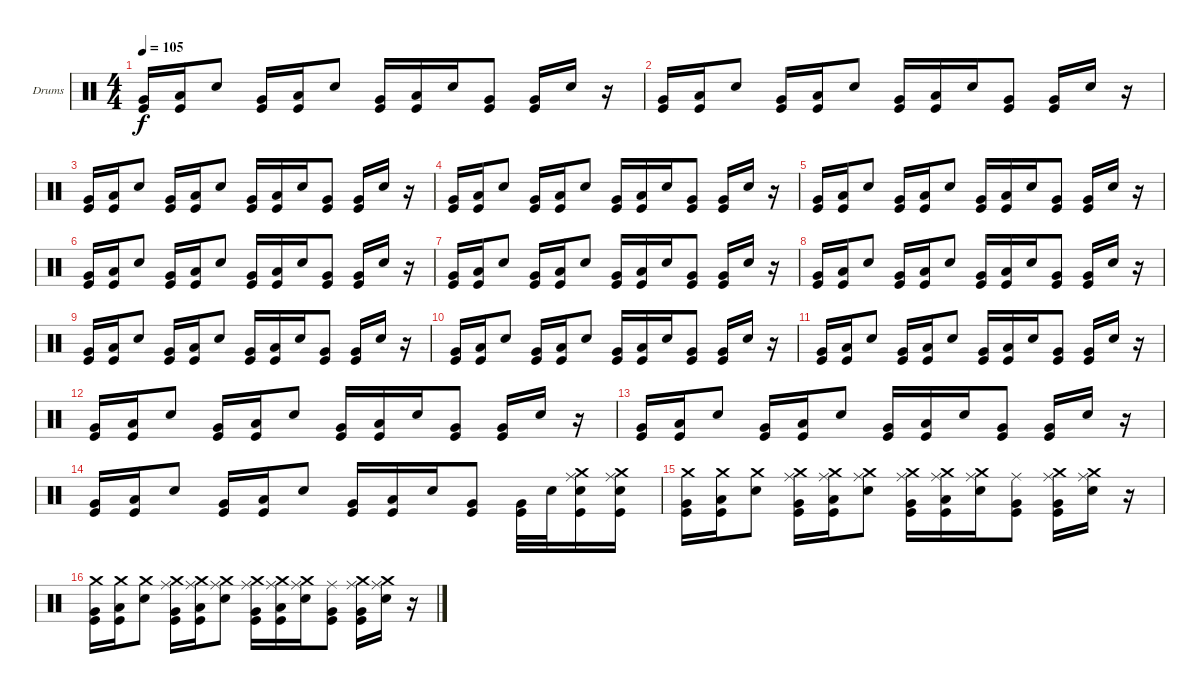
\defaultSystemsLayout 4
\bracketExtendMode groupsimilarinstruments
\firstSystemTrackNameOrientation horizontal
\otherSystemsTrackNameOrientation horizontal
\track ("Steve" "Drums") {instrument percussion}
\staff {score}
\articulation defaults
\ts (4 4)
\tempo 105
\clef neutral
\ks c
("Very Low Tom (hit)" "Kick (hit)").16{dy f} ("Low Tom (hit)" "Kick (hit)").16 "Snare (hit) 2".8 ("Very Low Tom (hit)" "Kick (hit)").16 ("Low Tom (hit)" "Kick (hit)").16 "Snare (hit) 2".8 ("Very Low Tom (hit)" "Kick (hit)").16 ("Low Tom (hit)" "Kick (hit)").16 "Snare (hit) 2".16 ("Very Low Tom (hit)" "Kick (hit)").8 ("Very Low Tom (hit)" "Kick (hit)").16 "Snare (hit) 2".16 r.16 |
("Very Low Tom (hit)" "Kick (hit)").16 ("Low Tom (hit)" "Kick (hit)").16 "Snare (hit) 2".8 ("Very Low Tom (hit)" "Kick (hit)").16 ("Low Tom (hit)" "Kick (hit)").16 "Snare (hit) 2".8 ("Very Low Tom (hit)" "Kick (hit)").16 ("Low Tom (hit)" "Kick (hit)").16 "Snare (hit) 2".16 ("Very Low Tom (hit)" "Kick (hit)").8 ("Very Low Tom (hit)" "Kick (hit)").16 "Snare (hit) 2".16 r.16 |
("Very Low Tom (hit)" "Kick (hit)").16 ("Low Tom (hit)" "Kick (hit)").16 "Snare (hit) 2".8 ("Very Low Tom (hit)" "Kick (hit)").16 ("Low Tom (hit)" "Kick (hit)").16 "Snare (hit) 2".8 ("Very Low Tom (hit)" "Kick (hit)").16 ("Low Tom (hit)" "Kick (hit)").16 "Snare (hit) 2".16 ("Very Low Tom (hit)" "Kick (hit)").8 ("Very Low Tom (hit)" "Kick (hit)").16 "Snare (hit) 2".16 r.16 |
("Very Low Tom (hit)" "Kick (hit)").16 ("Low Tom (hit)" "Kick (hit)").16 "Snare (hit) 2".8 ("Very Low Tom (hit)" "Kick (hit)").16 ("Low Tom (hit)" "Kick (hit)").16 "Snare (hit) 2".8 ("Very Low Tom (hit)" "Kick (hit)").16 ("Low Tom (hit)" "Kick (hit)").16 "Snare (hit) 2".16 ("Very Low Tom (hit)" "Kick (hit)").8 ("Very Low Tom (hit)" "Kick (hit)").16 "Snare (hit) 2".16 r.16 |
("Very Low Tom (hit)" "Kick (hit)").16 ("Low Tom (hit)" "Kick (hit)").16 "Snare (hit) 2".8 ("Very Low Tom (hit)" "Kick (hit)").16 ("Low Tom (hit)" "Kick (hit)").16 "Snare (hit) 2".8 ("Very Low Tom (hit)" "Kick (hit)").16 ("Low Tom (hit)" "Kick (hit)").16 "Snare (hit) 2".16 ("Very Low Tom (hit)" "Kick (hit)").8 ("Very Low Tom (hit)" "Kick (hit)").16 "Snare (hit) 2".16 r.16 |
("Very Low Tom (hit)" "Kick (hit)").16 ("Low Tom (hit)" "Kick (hit)").16 "Snare (hit) 2".8 ("Very Low Tom (hit)" "Kick (hit)").16 ("Low Tom (hit)" "Kick (hit)").16 "Snare (hit) 2".8 ("Very Low Tom (hit)" "Kick (hit)").16 ("Low Tom (hit)" "Kick (hit)").16 "Snare (hit) 2".16 ("Very Low Tom (hit)" "Kick (hit)").8 ("Very Low Tom (hit)" "Kick (hit)").16 "Snare (hit) 2".16 r.16 |
("Very Low Tom (hit)" "Kick (hit)").16 ("Low Tom (hit)" "Kick (hit)").16 "Snare (hit) 2".8 ("Very Low Tom (hit)" "Kick (hit)").16 ("Low Tom (hit)" "Kick (hit)").16 "Snare (hit) 2".8 ("Very Low Tom (hit)" "Kick (hit)").16 ("Low Tom (hit)" "Kick (hit)").16 "Snare (hit) 2".16 ("Very Low Tom (hit)" "Kick (hit)").8 ("Very Low Tom (hit)" "Kick (hit)").16 "Snare (hit) 2".16 r.16 |
("Very Low Tom (hit)" "Kick (hit)").16 ("Low Tom (hit)" "Kick (hit)").16 "Snare (hit) 2".8 ("Very Low Tom (hit)" "Kick (hit)").16 ("Low Tom (hit)" "Kick (hit)").16 "Snare (hit) 2".8 ("Very Low Tom (hit)" "Kick (hit)").16 ("Low Tom (hit)" "Kick (hit)").16 "Snare (hit) 2".16 ("Very Low Tom (hit)" "Kick (hit)").8 ("Very Low Tom (hit)" "Kick (hit)").16 "Snare (hit) 2".16 r.16 |
("Very Low Tom (hit)" "Kick (hit)").16 ("Low Tom (hit)" "Kick (hit)").16 "Snare (hit) 2".8 ("Very Low Tom (hit)" "Kick (hit)").16 ("Low Tom (hit)" "Kick (hit)").16 "Snare (hit) 2".8 ("Very Low Tom (hit)" "Kick (hit)").16 ("Low Tom (hit)" "Kick (hit)").16 "Snare (hit) 2".16 ("Very Low Tom (hit)" "Kick (hit)").8 ("Very Low Tom (hit)" "Kick (hit)").16 "Snare (hit) 2".16 r.16 |
("Very Low Tom (hit)" "Kick (hit)").16 ("Low Tom (hit)" "Kick (hit)").16 "Snare (hit) 2".8 ("Very Low Tom (hit)" "Kick (hit)").16 ("Low Tom (hit)" "Kick (hit)").16 "Snare (hit) 2".8 ("Very Low Tom (hit)" "Kick (hit)").16 ("Low Tom (hit)" "Kick (hit)").16 "Snare (hit) 2".16 ("Very Low Tom (hit)" "Kick (hit)").8 ("Very Low Tom (hit)" "Kick (hit)").16 "Snare (hit) 2".16 r.16 |
("Very Low Tom (hit)" "Kick (hit)").16 ("Low Tom (hit)" "Kick (hit)").16 "Snare (hit) 2".8 ("Very Low Tom (hit)" "Kick (hit)").16 ("Low Tom (hit)" "Kick (hit)").16 "Snare (hit) 2".8 ("Very Low Tom (hit)" "Kick (hit)").16 ("Low Tom (hit)" "Kick (hit)").16 "Snare (hit) 2".16 ("Very Low Tom (hit)" "Kick (hit)").8 ("Very Low Tom (hit)" "Kick (hit)").16 "Snare (hit) 2".16 r.16 |
("Very Low Tom (hit)" "Kick (hit)").16 ("Low Tom (hit)" "Kick (hit)").16 "Snare (hit) 2".8 ("Very Low Tom (hit)" "Kick (hit)").16 ("Low Tom (hit)" "Kick (hit)").16 "Snare (hit) 2".8 ("Very Low Tom (hit)" "Kick (hit)").16 ("Low Tom (hit)" "Kick (hit)").16 "Snare (hit) 2".16 ("Very Low Tom (hit)" "Kick (hit)").8 ("Very Low Tom (hit)" "Kick (hit)").16 "Snare (hit) 2".16 r.16 |
("Very Low Tom (hit)" "Kick (hit)").16 ("Low Tom (hit)" "Kick (hit)").16 "Snare (hit) 2".8 ("Very Low Tom (hit)" "Kick (hit)").16 ("Low Tom (hit)" "Kick (hit)").16 "Snare (hit) 2".8 ("Very Low Tom (hit)" "Kick (hit)").16 ("Low Tom (hit)" "Kick (hit)").16 "Snare (hit) 2".16 ("Very Low Tom (hit)" "Kick (hit)").8 ("Very Low Tom (hit)" "Kick (hit)").16 "Snare (hit) 2".16 r.16 |
("Very Low Tom (hit)" "Kick (hit)").16 ("Low Tom (hit)" "Kick (hit)").16 "Snare (hit) 2".8 ("Very Low Tom (hit)" "Kick (hit)").16 ("Low Tom (hit)" "Kick (hit)").16 "Snare (hit) 2".8 ("Very Low Tom (hit)" "Kick (hit)").16 ("Low Tom (hit)" "Kick (hit)").16 "Snare (hit) 2".16 ("Very Low Tom (hit)" "Kick (hit)").8 ("Very Low Tom (hit)" "Kick (hit)").32 "Snare (hit) 2".32 ("Snare (hit) 2" "Kick (hit)" "Crash medium (hit)" "Ride (middle)").16 ("Snare (hit) 2" "Kick (hit)" "Crash medium (hit)" "Ride (middle)").16 |
("Very Low Tom (hit)" "Crash medium (hit)" "Kick (hit)").16 ("Low Tom (hit)" "Crash medium (hit)" "Kick (hit)").16 ("Snare (hit) 2" "Crash medium (hit)").8 ("Very Low Tom (hit)" "Ride (middle)" "Kick (hit)" "Crash medium (hit)").16 ("Low Tom (hit)" "Ride (middle)" "Kick (hit)" "Crash medium (hit)").16 ("Snare (hit) 2" "Ride (middle)" "Crash medium (hit)").8 ("Very Low Tom (hit)" "Ride (middle)" "Kick (hit)" "Crash medium (hit)").16 ("Low Tom (hit)" "Ride (middle)" "Kick (hit)" "Crash medium (hit)").16 ("Snare (hit) 2" "Ride (middle)" "Crash medium (hit)").16 ("Very Low Tom (hit)" "Ride (middle)" "Kick (hit)").8 ("Very Low Tom (hit)" "Ride (middle)" "Kick (hit)" "Crash medium (hit)").16 ("Snare (hit) 2" "Ride (middle)" "Crash medium (hit)").16 r.16 |
("Very Low Tom (hit)" "Crash medium (hit)" "Kick (hit)").16 ("Low Tom (hit)" "Crash medium (hit)" "Kick (hit)").16 ("Snare (hit) 2" "Crash medium (hit)").8 ("Very Low Tom (hit)" "Ride (middle)" "Kick (hit)" "Crash medium (hit)").16 ("Low Tom (hit)" "Ride (middle)" "Kick (hit)" "Crash medium (hit)").16 ("Snare (hit) 2" "Ride (middle)" "Crash medium (hit)").8 ("Very Low Tom (hit)" "Ride (middle)" "Kick (hit)" "Crash medium (hit)").16 ("Low Tom (hit)" "Ride (middle)" "Kick (hit)" "Crash medium (hit)").16 ("Snare (hit) 2" "Ride (middle)" "Crash medium (hit)").16 ("Very Low Tom (hit)" "Ride (middle)" "Kick (hit)").8 ("Very Low Tom (hit)" "Ride (middle)" "Kick (hit)" "Crash medium (hit)").16 ("Snare (hit) 2" "Ride (middle)" "Crash medium (hit)").16 r.16
